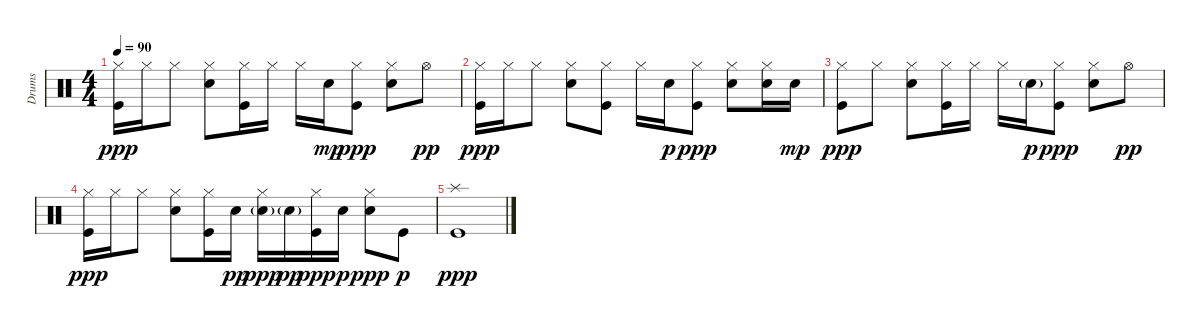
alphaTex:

\track ("Drums" "Drums") {instrument percussion}
\staff {score}
\articulation defaults
\ts (4 4)
\tempo 90
\clef neutral
\ks c
("Kick (hit)" "Hi-Hat (closed)").16{dy ppp} "Hi-Hat (closed)".16 "Hi-Hat (closed)".8 ("Snare (hit) 2" "Hi-Hat (closed)").8 ("Kick (hit)" "Hi-Hat (closed)").16 "Hi-Hat (closed)".16 "Hi-Hat (closed)".16 "Snare (hit) 2".16{dy mp} ("Kick (hit)" "Hi-Hat (closed)").8{dy ppp} ("Snare (hit) 2" "Hi-Hat (closed)").8 "Hi-Hat (open)".8{dy pp} |
("Kick (hit)" "Hi-Hat (closed)").16{dy ppp} "Hi-Hat (closed)".16 "Hi-Hat (closed)".8 ("Snare (hit) 2" "Hi-Hat (closed)").8 ("Kick (hit)" "Hi-Hat (closed)").8 "Hi-Hat (closed)".16 "Snare (hit) 2".16{dy p} ("Kick (hit)" "Hi-Hat (closed)").8{dy ppp} ("Snare (hit) 2" "Hi-Hat (closed)").8 ("Snare (hit) 2" "Hi-Hat (closed)").16 "Snare (hit) 2".16{dy mp} |
("Kick (hit)" "Hi-Hat (closed)").8{dy ppp} "Hi-Hat (closed)".8 ("Snare (hit) 2" "Hi-Hat (closed)").8 ("Kick (hit)" "Hi-Hat (closed)").16 "Hi-Hat (closed)".16 "Hi-Hat (closed)".16 "Snare (hit) 2"{g}.16{dy p} ("Kick (hit)" "Hi-Hat (closed)").8{dy ppp} ("Snare (hit) 2" "Hi-Hat (closed)").8 "Hi-Hat (open)".8{dy pp} |
("Kick (hit)" "Hi-Hat (closed)").16{dy ppp} "Hi-Hat (closed)".16 "Hi-Hat (closed)".8 ("Snare (hit) 2" "Hi-Hat (closed)").8 ("Kick (hit)" "Hi-Hat (closed)").16 "Snare (hit) 2".16{dy pp} ("Snare (hit) 2"{g} "Hi-Hat (closed)").16{dy ppp} "Snare (hit) 2"{g}.16{dy pp} ("Kick (hit)" "Hi-Hat (closed)").16{dy ppp} "Snare (hit) 2".16{dy p} ("Snare (hit) 2" "Hi-Hat (closed)").8{dy ppp} "Kick (hit)".8{dy p} |
("Kick (hit)" "Splash (hit)").1{dy ppp}
